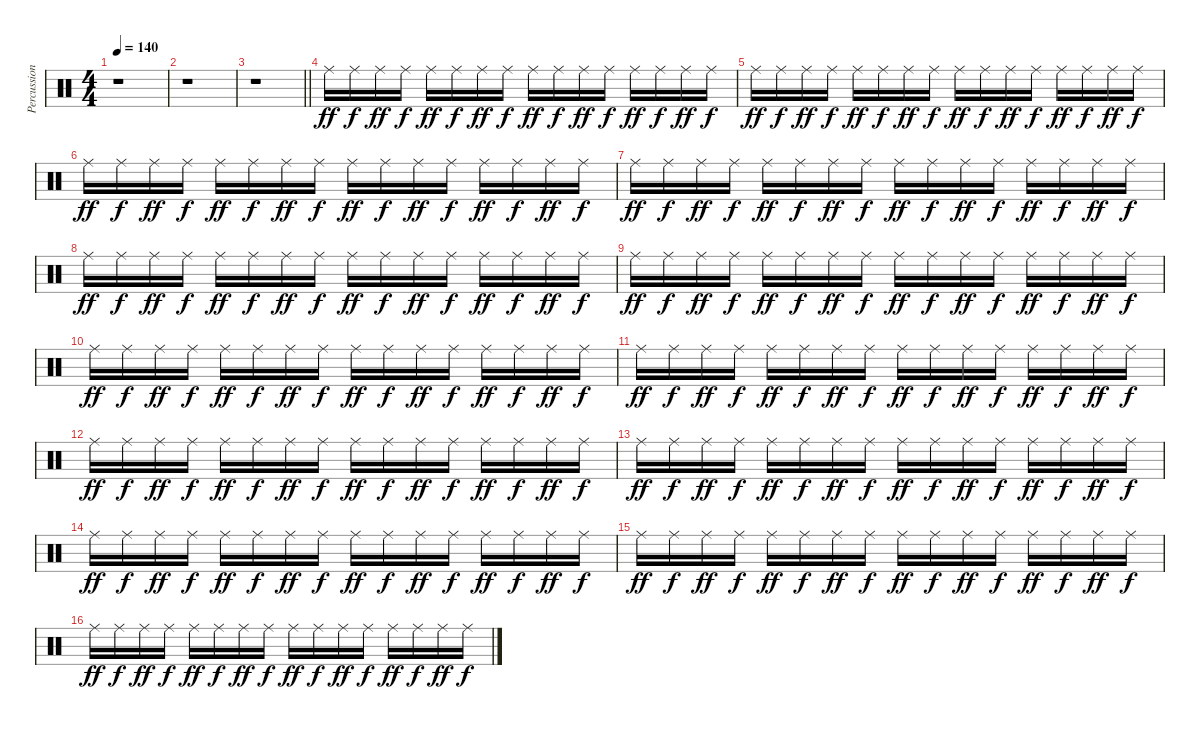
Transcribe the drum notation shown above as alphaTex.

\track ("Percussion" "Percussion") {instrument percussion}
\staff {score}
\articulation defaults
\ts (4 4)
\tempo 140
\clef neutral
\ks c
r.1{dy mf} |
r.1 |
\barLineRight lightlight
r.1 |
"Ride (middle)".16{dy ff} "Ride (middle)".16{dy f} "Ride (middle)".16{dy ff} "Ride (middle)".16{dy f} "Ride (middle)".16{dy ff} "Ride (middle)".16{dy f} "Ride (middle)".16{dy ff} "Ride (middle)".16{dy f} "Ride (middle)".16{dy ff} "Ride (middle)".16{dy f} "Ride (middle)".16{dy ff} "Ride (middle)".16{dy f} "Ride (middle)".16{dy ff} "Ride (middle)".16{dy f} "Ride (middle)".16{dy ff} "Ride (middle)".16{dy f} |
"Ride (middle)".16{dy ff} "Ride (middle)".16{dy f} "Ride (middle)".16{dy ff} "Ride (middle)".16{dy f} "Ride (middle)".16{dy ff} "Ride (middle)".16{dy f} "Ride (middle)".16{dy ff} "Ride (middle)".16{dy f} "Ride (middle)".16{dy ff} "Ride (middle)".16{dy f} "Ride (middle)".16{dy ff} "Ride (middle)".16{dy f} "Ride (middle)".16{dy ff} "Ride (middle)".16{dy f} "Ride (middle)".16{dy ff} "Ride (middle)".16{dy f} |
"Ride (middle)".16{dy ff} "Ride (middle)".16{dy f} "Ride (middle)".16{dy ff} "Ride (middle)".16{dy f} "Ride (middle)".16{dy ff} "Ride (middle)".16{dy f} "Ride (middle)".16{dy ff} "Ride (middle)".16{dy f} "Ride (middle)".16{dy ff} "Ride (middle)".16{dy f} "Ride (middle)".16{dy ff} "Ride (middle)".16{dy f} "Ride (middle)".16{dy ff} "Ride (middle)".16{dy f} "Ride (middle)".16{dy ff} "Ride (middle)".16{dy f} |
"Ride (middle)".16{dy ff} "Ride (middle)".16{dy f} "Ride (middle)".16{dy ff} "Ride (middle)".16{dy f} "Ride (middle)".16{dy ff} "Ride (middle)".16{dy f} "Ride (middle)".16{dy ff} "Ride (middle)".16{dy f} "Ride (middle)".16{dy ff} "Ride (middle)".16{dy f} "Ride (middle)".16{dy ff} "Ride (middle)".16{dy f} "Ride (middle)".16{dy ff} "Ride (middle)".16{dy f} "Ride (middle)".16{dy ff} "Ride (middle)".16{dy f} |
"Ride (middle)".16{dy ff} "Ride (middle)".16{dy f} "Ride (middle)".16{dy ff} "Ride (middle)".16{dy f} "Ride (middle)".16{dy ff} "Ride (middle)".16{dy f} "Ride (middle)".16{dy ff} "Ride (middle)".16{dy f} "Ride (middle)".16{dy ff} "Ride (middle)".16{dy f} "Ride (middle)".16{dy ff} "Ride (middle)".16{dy f} "Ride (middle)".16{dy ff} "Ride (middle)".16{dy f} "Ride (middle)".16{dy ff} "Ride (middle)".16{dy f} |
"Ride (middle)".16{dy ff} "Ride (middle)".16{dy f} "Ride (middle)".16{dy ff} "Ride (middle)".16{dy f} "Ride (middle)".16{dy ff} "Ride (middle)".16{dy f} "Ride (middle)".16{dy ff} "Ride (middle)".16{dy f} "Ride (middle)".16{dy ff} "Ride (middle)".16{dy f} "Ride (middle)".16{dy ff} "Ride (middle)".16{dy f} "Ride (middle)".16{dy ff} "Ride (middle)".16{dy f} "Ride (middle)".16{dy ff} "Ride (middle)".16{dy f} |
"Ride (middle)".16{dy ff} "Ride (middle)".16{dy f} "Ride (middle)".16{dy ff} "Ride (middle)".16{dy f} "Ride (middle)".16{dy ff} "Ride (middle)".16{dy f} "Ride (middle)".16{dy ff} "Ride (middle)".16{dy f} "Ride (middle)".16{dy ff} "Ride (middle)".16{dy f} "Ride (middle)".16{dy ff} "Ride (middle)".16{dy f} "Ride (middle)".16{dy ff} "Ride (middle)".16{dy f} "Ride (middle)".16{dy ff} "Ride (middle)".16{dy f} |
"Ride (middle)".16{dy ff} "Ride (middle)".16{dy f} "Ride (middle)".16{dy ff} "Ride (middle)".16{dy f} "Ride (middle)".16{dy ff} "Ride (middle)".16{dy f} "Ride (middle)".16{dy ff} "Ride (middle)".16{dy f} "Ride (middle)".16{dy ff} "Ride (middle)".16{dy f} "Ride (middle)".16{dy ff} "Ride (middle)".16{dy f} "Ride (middle)".16{dy ff} "Ride (middle)".16{dy f} "Ride (middle)".16{dy ff} "Ride (middle)".16{dy f} |
"Ride (middle)".16{dy ff} "Ride (middle)".16{dy f} "Ride (middle)".16{dy ff} "Ride (middle)".16{dy f} "Ride (middle)".16{dy ff} "Ride (middle)".16{dy f} "Ride (middle)".16{dy ff} "Ride (middle)".16{dy f} "Ride (middle)".16{dy ff} "Ride (middle)".16{dy f} "Ride (middle)".16{dy ff} "Ride (middle)".16{dy f} "Ride (middle)".16{dy ff} "Ride (middle)".16{dy f} "Ride (middle)".16{dy ff} "Ride (middle)".16{dy f} |
"Ride (middle)".16{dy ff} "Ride (middle)".16{dy f} "Ride (middle)".16{dy ff} "Ride (middle)".16{dy f} "Ride (middle)".16{dy ff} "Ride (middle)".16{dy f} "Ride (middle)".16{dy ff} "Ride (middle)".16{dy f} "Ride (middle)".16{dy ff} "Ride (middle)".16{dy f} "Ride (middle)".16{dy ff} "Ride (middle)".16{dy f} "Ride (middle)".16{dy ff} "Ride (middle)".16{dy f} "Ride (middle)".16{dy ff} "Ride (middle)".16{dy f} |
"Ride (middle)".16{dy ff} "Ride (middle)".16{dy f} "Ride (middle)".16{dy ff} "Ride (middle)".16{dy f} "Ride (middle)".16{dy ff} "Ride (middle)".16{dy f} "Ride (middle)".16{dy ff} "Ride (middle)".16{dy f} "Ride (middle)".16{dy ff} "Ride (middle)".16{dy f} "Ride (middle)".16{dy ff} "Ride (middle)".16{dy f} "Ride (middle)".16{dy ff} "Ride (middle)".16{dy f} "Ride (middle)".16{dy ff} "Ride (middle)".16{dy f} |
"Ride (middle)".16{dy ff} "Ride (middle)".16{dy f} "Ride (middle)".16{dy ff} "Ride (middle)".16{dy f} "Ride (middle)".16{dy ff} "Ride (middle)".16{dy f} "Ride (middle)".16{dy ff} "Ride (middle)".16{dy f} "Ride (middle)".16{dy ff} "Ride (middle)".16{dy f} "Ride (middle)".16{dy ff} "Ride (middle)".16{dy f} "Ride (middle)".16{dy ff} "Ride (middle)".16{dy f} "Ride (middle)".16{dy ff} "Ride (middle)".16{dy f} |
"Ride (middle)".16{dy ff} "Ride (middle)".16{dy f} "Ride (middle)".16{dy ff} "Ride (middle)".16{dy f} "Ride (middle)".16{dy ff} "Ride (middle)".16{dy f} "Ride (middle)".16{dy ff} "Ride (middle)".16{dy f} "Ride (middle)".16{dy ff} "Ride (middle)".16{dy f} "Ride (middle)".16{dy ff} "Ride (middle)".16{dy f} "Ride (middle)".16{dy ff} "Ride (middle)".16{dy f} "Ride (middle)".16{dy ff} "Ride (middle)".16{dy f}
